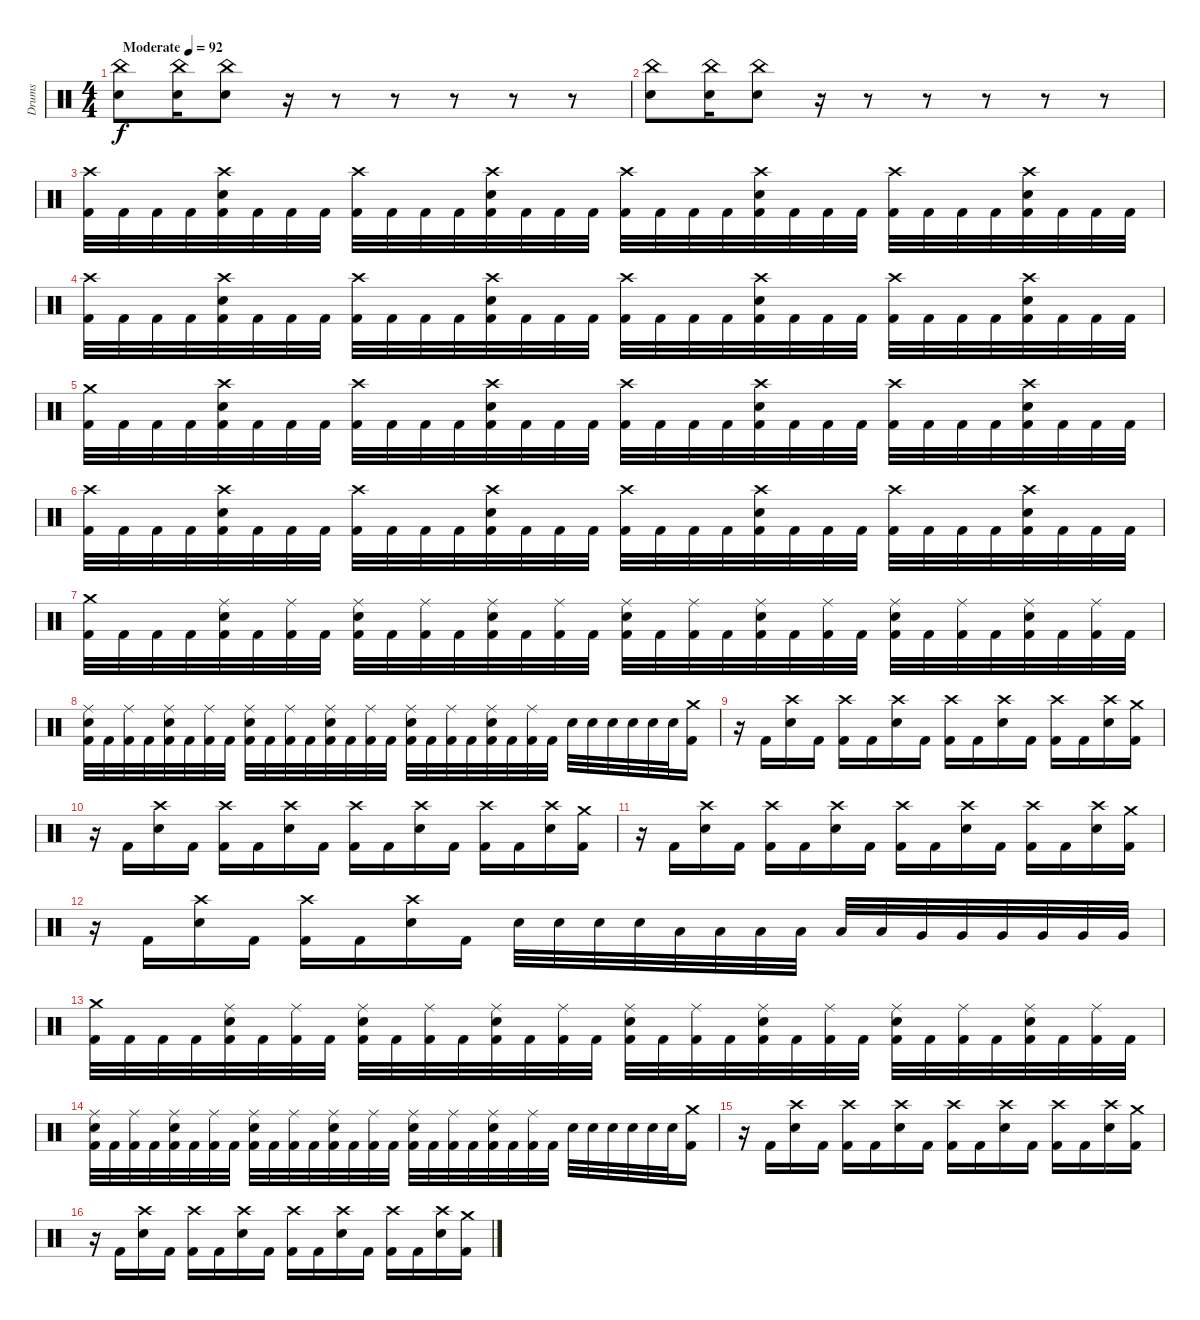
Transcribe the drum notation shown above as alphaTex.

\track ("Drums" "Drums") {instrument percussion}
\staff {score}
\articulation defaults
\ts (4 4)
\tempo (92 "Moderate")
\clef neutral
\ks c
("China (hit)" "Electric Snare (hit)").8{dy f} ("China (hit)" "Electric Snare (hit)").16 ("China (hit)" "Electric Snare (hit)").8 r.16 r.8 r.8 r.8 r.8 r.8 |
("China (hit)" "Electric Snare (hit)").8 ("China (hit)" "Electric Snare (hit)").16 ("China (hit)" "Electric Snare (hit)").8 r.16 r.8 r.8 r.8 r.8 r.8 |
("Crash high (hit)" "Kick (hit) 2").32 "Kick (hit) 2".32 "Kick (hit) 2".32 "Kick (hit) 2".32 ("Crash high (hit)" "Electric Snare (hit)" "Kick (hit) 2").32 "Kick (hit) 2".32 "Kick (hit) 2".32 "Kick (hit) 2".32 ("Crash high (hit)" "Kick (hit) 2").32 "Kick (hit) 2".32 "Kick (hit) 2".32 "Kick (hit) 2".32 ("Crash high (hit)" "Electric Snare (hit)" "Kick (hit) 2").32 "Kick (hit) 2".32 "Kick (hit) 2".32 "Kick (hit) 2".32 ("Crash high (hit)" "Kick (hit) 2").32 "Kick (hit) 2".32 "Kick (hit) 2".32 "Kick (hit) 2".32 ("Crash high (hit)" "Electric Snare (hit)" "Kick (hit) 2").32 "Kick (hit) 2".32 "Kick (hit) 2".32 "Kick (hit) 2".32 ("Crash high (hit)" "Kick (hit) 2").32 "Kick (hit) 2".32 "Kick (hit) 2".32 "Kick (hit) 2".32 ("Crash high (hit)" "Electric Snare (hit)" "Kick (hit) 2").32 "Kick (hit) 2".32 "Kick (hit) 2".32 "Kick (hit) 2".32 |
("Crash high (hit)" "Kick (hit) 2").32 "Kick (hit) 2".32 "Kick (hit) 2".32 "Kick (hit) 2".32 ("Crash high (hit)" "Electric Snare (hit)" "Kick (hit) 2").32 "Kick (hit) 2".32 "Kick (hit) 2".32 "Kick (hit) 2".32 ("Crash high (hit)" "Kick (hit) 2").32 "Kick (hit) 2".32 "Kick (hit) 2".32 "Kick (hit) 2".32 ("Crash high (hit)" "Electric Snare (hit)" "Kick (hit) 2").32 "Kick (hit) 2".32 "Kick (hit) 2".32 "Kick (hit) 2".32 ("Crash high (hit)" "Kick (hit) 2").32 "Kick (hit) 2".32 "Kick (hit) 2".32 "Kick (hit) 2".32 ("Crash high (hit)" "Electric Snare (hit)" "Kick (hit) 2").32 "Kick (hit) 2".32 "Kick (hit) 2".32 "Kick (hit) 2".32 ("Crash high (hit)" "Kick (hit) 2").32 "Kick (hit) 2".32 "Kick (hit) 2".32 "Kick (hit) 2".32 ("Crash high (hit)" "Electric Snare (hit)" "Kick (hit) 2").32 "Kick (hit) 2".32 "Kick (hit) 2".32 "Kick (hit) 2".32 |
("Crash medium (hit)" "Kick (hit) 2").32 "Kick (hit) 2".32 "Kick (hit) 2".32 "Kick (hit) 2".32 ("Crash high (hit)" "Electric Snare (hit)" "Kick (hit) 2").32 "Kick (hit) 2".32 "Kick (hit) 2".32 "Kick (hit) 2".32 ("Crash high (hit)" "Kick (hit) 2").32 "Kick (hit) 2".32 "Kick (hit) 2".32 "Kick (hit) 2".32 ("Crash high (hit)" "Electric Snare (hit)" "Kick (hit) 2").32 "Kick (hit) 2".32 "Kick (hit) 2".32 "Kick (hit) 2".32 ("Crash high (hit)" "Kick (hit) 2").32 "Kick (hit) 2".32 "Kick (hit) 2".32 "Kick (hit) 2".32 ("Crash high (hit)" "Electric Snare (hit)" "Kick (hit) 2").32 "Kick (hit) 2".32 "Kick (hit) 2".32 "Kick (hit) 2".32 ("Crash high (hit)" "Kick (hit) 2").32 "Kick (hit) 2".32 "Kick (hit) 2".32 "Kick (hit) 2".32 ("Crash high (hit)" "Electric Snare (hit)" "Kick (hit) 2").32 "Kick (hit) 2".32 "Kick (hit) 2".32 "Kick (hit) 2".32 |
("Crash high (hit)" "Kick (hit) 2").32 "Kick (hit) 2".32 "Kick (hit) 2".32 "Kick (hit) 2".32 ("Crash high (hit)" "Electric Snare (hit)" "Kick (hit) 2").32 "Kick (hit) 2".32 "Kick (hit) 2".32 "Kick (hit) 2".32 ("Crash high (hit)" "Kick (hit) 2").32 "Kick (hit) 2".32 "Kick (hit) 2".32 "Kick (hit) 2".32 ("Crash high (hit)" "Electric Snare (hit)" "Kick (hit) 2").32 "Kick (hit) 2".32 "Kick (hit) 2".32 "Kick (hit) 2".32 ("Crash high (hit)" "Kick (hit) 2").32 "Kick (hit) 2".32 "Kick (hit) 2".32 "Kick (hit) 2".32 ("Crash high (hit)" "Electric Snare (hit)" "Kick (hit) 2").32 "Kick (hit) 2".32 "Kick (hit) 2".32 "Kick (hit) 2".32 ("Crash high (hit)" "Kick (hit) 2").32 "Kick (hit) 2".32 "Kick (hit) 2".32 "Kick (hit) 2".32 ("Crash high (hit)" "Electric Snare (hit)" "Kick (hit) 2").32 "Kick (hit) 2".32 "Kick (hit) 2".32 "Kick (hit) 2".32 |
("Crash medium (hit)" "Kick (hit) 2").32 "Kick (hit) 2".32 "Kick (hit) 2".32 "Kick (hit) 2".32 ("Ride (middle)" "Electric Snare (hit)" "Kick (hit) 2").32 "Kick (hit) 2".32 ("Ride (middle)" "Kick (hit) 2").32 "Kick (hit) 2".32 ("Ride (middle)" "Electric Snare (hit)" "Kick (hit) 2").32 "Kick (hit) 2".32 ("Ride (middle)" "Kick (hit) 2").32 "Kick (hit) 2".32 ("Ride (middle)" "Electric Snare (hit)" "Kick (hit) 2").32 "Kick (hit) 2".32 ("Ride (middle)" "Kick (hit) 2").32 "Kick (hit) 2".32 ("Ride (middle)" "Electric Snare (hit)" "Kick (hit) 2").32 "Kick (hit) 2".32 ("Ride (middle)" "Kick (hit) 2").32 "Kick (hit) 2".32 ("Ride (middle)" "Electric Snare (hit)" "Kick (hit) 2").32 "Kick (hit) 2".32 ("Ride (middle)" "Kick (hit) 2").32 "Kick (hit) 2".32 ("Ride (middle)" "Electric Snare (hit)" "Kick (hit) 2").32 "Kick (hit) 2".32 ("Ride (middle)" "Kick (hit) 2").32 "Kick (hit) 2".32 ("Ride (middle)" "Electric Snare (hit)" "Kick (hit) 2").32 "Kick (hit) 2".32 ("Ride (middle)" "Kick (hit) 2").32 "Kick (hit) 2".32 |
("Ride (middle)" "Electric Snare (hit)" "Kick (hit) 2").32 "Kick (hit) 2".32 ("Ride (middle)" "Kick (hit) 2").32 "Kick (hit) 2".32 ("Ride (middle)" "Electric Snare (hit)" "Kick (hit) 2").32 "Kick (hit) 2".32 ("Ride (middle)" "Kick (hit) 2").32 "Kick (hit) 2".32 ("Ride (middle)" "Electric Snare (hit)" "Kick (hit) 2").32 "Kick (hit) 2".32 ("Ride (middle)" "Kick (hit) 2").32 "Kick (hit) 2".32 ("Ride (middle)" "Electric Snare (hit)" "Kick (hit) 2").32 "Kick (hit) 2".32 ("Ride (middle)" "Kick (hit) 2").32 "Kick (hit) 2".32 ("Ride (middle)" "Electric Snare (hit)" "Kick (hit) 2").32 "Kick (hit) 2".32 ("Ride (middle)" "Kick (hit) 2").32 "Kick (hit) 2".32 ("Ride (middle)" "Electric Snare (hit)" "Kick (hit) 2").32 "Kick (hit) 2".32 ("Ride (middle)" "Kick (hit) 2").32 "Kick (hit) 2".32 "Electric Snare (hit)".32 "Electric Snare (hit)".32 "Electric Snare (hit)".32 "Electric Snare (hit)".32 "Electric Snare (hit)".32 "Electric Snare (hit)".32 ("Crash medium (hit)" "Kick (hit) 2").16 |
r.16 "Kick (hit) 2".16 ("Crash high (hit)" "Electric Snare (hit)").16 "Kick (hit) 2".16 ("Crash high (hit)" "Kick (hit) 2").16 "Kick (hit) 2".16 ("Crash high (hit)" "Electric Snare (hit)").16 "Kick (hit) 2".16 ("Crash high (hit)" "Kick (hit) 2").16 "Kick (hit) 2".16 ("Crash high (hit)" "Electric Snare (hit)").16 "Kick (hit) 2".16 ("Crash high (hit)" "Kick (hit) 2").16 "Kick (hit) 2".16 ("Crash high (hit)" "Electric Snare (hit)").16 ("Crash medium (hit)" "Kick (hit) 2").16 |
r.16 "Kick (hit) 2".16 ("Crash high (hit)" "Electric Snare (hit)").16 "Kick (hit) 2".16 ("Crash high (hit)" "Kick (hit) 2").16 "Kick (hit) 2".16 ("Crash high (hit)" "Electric Snare (hit)").16 "Kick (hit) 2".16 ("Crash high (hit)" "Kick (hit) 2").16 "Kick (hit) 2".16 ("Crash high (hit)" "Electric Snare (hit)").16 "Kick (hit) 2".16 ("Crash high (hit)" "Kick (hit) 2").16 "Kick (hit) 2".16 ("Crash high (hit)" "Electric Snare (hit)").16 ("Crash medium (hit)" "Kick (hit) 2").16 |
r.16 "Kick (hit) 2".16 ("Crash high (hit)" "Electric Snare (hit)").16 "Kick (hit) 2".16 ("Crash high (hit)" "Kick (hit) 2").16 "Kick (hit) 2".16 ("Crash high (hit)" "Electric Snare (hit)").16 "Kick (hit) 2".16 ("Crash high (hit)" "Kick (hit) 2").16 "Kick (hit) 2".16 ("Crash high (hit)" "Electric Snare (hit)").16 "Kick (hit) 2".16 ("Crash high (hit)" "Kick (hit) 2").16 "Kick (hit) 2".16 ("Crash high (hit)" "Electric Snare (hit)").16 ("Crash medium (hit)" "Kick (hit) 2").16 |
r.16 "Kick (hit) 2".16 ("Crash high (hit)" "Electric Snare (hit)").16 "Kick (hit) 2".16 ("Crash high (hit)" "Kick (hit) 2").16 "Kick (hit) 2".16 ("Crash high (hit)" "Electric Snare (hit)").16 "Kick (hit) 2".16 "Electric Snare (hit)".32 "Electric Snare (hit)".32 "Electric Snare (hit)".32 "Electric Snare (hit)".32 "Low Tom (hit)".32 "Low Tom (hit)".32 "Low Tom (hit)".32 "Low Tom (hit)".32 "Low Tom (hit)".32 "Low Tom (hit)".32 "Very Low Tom (hit)".32 "Very Low Tom (hit)".32 "Very Low Tom (hit)".32 "Very Low Tom (hit)".32 "Very Low Tom (hit)".32 "Very Low Tom (hit)".32 |
("Crash medium (hit)" "Kick (hit) 2").32 "Kick (hit) 2".32 "Kick (hit) 2".32 "Kick (hit) 2".32 ("Ride (middle)" "Electric Snare (hit)" "Kick (hit) 2").32 "Kick (hit) 2".32 ("Ride (middle)" "Kick (hit) 2").32 "Kick (hit) 2".32 ("Ride (middle)" "Electric Snare (hit)" "Kick (hit) 2").32 "Kick (hit) 2".32 ("Ride (middle)" "Kick (hit) 2").32 "Kick (hit) 2".32 ("Ride (middle)" "Electric Snare (hit)" "Kick (hit) 2").32 "Kick (hit) 2".32 ("Ride (middle)" "Kick (hit) 2").32 "Kick (hit) 2".32 ("Ride (middle)" "Electric Snare (hit)" "Kick (hit) 2").32 "Kick (hit) 2".32 ("Ride (middle)" "Kick (hit) 2").32 "Kick (hit) 2".32 ("Ride (middle)" "Electric Snare (hit)" "Kick (hit) 2").32 "Kick (hit) 2".32 ("Ride (middle)" "Kick (hit) 2").32 "Kick (hit) 2".32 ("Ride (middle)" "Electric Snare (hit)" "Kick (hit) 2").32 "Kick (hit) 2".32 ("Ride (middle)" "Kick (hit) 2").32 "Kick (hit) 2".32 ("Ride (middle)" "Electric Snare (hit)" "Kick (hit) 2").32 "Kick (hit) 2".32 ("Ride (middle)" "Kick (hit) 2").32 "Kick (hit) 2".32 |
("Ride (middle)" "Electric Snare (hit)" "Kick (hit) 2").32 "Kick (hit) 2".32 ("Ride (middle)" "Kick (hit) 2").32 "Kick (hit) 2".32 ("Ride (middle)" "Electric Snare (hit)" "Kick (hit) 2").32 "Kick (hit) 2".32 ("Ride (middle)" "Kick (hit) 2").32 "Kick (hit) 2".32 ("Ride (middle)" "Electric Snare (hit)" "Kick (hit) 2").32 "Kick (hit) 2".32 ("Ride (middle)" "Kick (hit) 2").32 "Kick (hit) 2".32 ("Ride (middle)" "Electric Snare (hit)" "Kick (hit) 2").32 "Kick (hit) 2".32 ("Ride (middle)" "Kick (hit) 2").32 "Kick (hit) 2".32 ("Ride (middle)" "Electric Snare (hit)" "Kick (hit) 2").32 "Kick (hit) 2".32 ("Ride (middle)" "Kick (hit) 2").32 "Kick (hit) 2".32 ("Ride (middle)" "Electric Snare (hit)" "Kick (hit) 2").32 "Kick (hit) 2".32 ("Ride (middle)" "Kick (hit) 2").32 "Kick (hit) 2".32 "Electric Snare (hit)".32 "Electric Snare (hit)".32 "Electric Snare (hit)".32 "Electric Snare (hit)".32 "Electric Snare (hit)".32 "Electric Snare (hit)".32 ("Crash medium (hit)" "Kick (hit) 2").16 |
r.16 "Kick (hit) 2".16 ("Crash high (hit)" "Electric Snare (hit)").16 "Kick (hit) 2".16 ("Crash high (hit)" "Kick (hit) 2").16 "Kick (hit) 2".16 ("Crash high (hit)" "Electric Snare (hit)").16 "Kick (hit) 2".16 ("Crash high (hit)" "Kick (hit) 2").16 "Kick (hit) 2".16 ("Crash high (hit)" "Electric Snare (hit)").16 "Kick (hit) 2".16 ("Crash high (hit)" "Kick (hit) 2").16 "Kick (hit) 2".16 ("Crash high (hit)" "Electric Snare (hit)").16 ("Crash medium (hit)" "Kick (hit) 2").16 |
r.16 "Kick (hit) 2".16 ("Crash high (hit)" "Electric Snare (hit)").16 "Kick (hit) 2".16 ("Crash high (hit)" "Kick (hit) 2").16 "Kick (hit) 2".16 ("Crash high (hit)" "Electric Snare (hit)").16 "Kick (hit) 2".16 ("Crash high (hit)" "Kick (hit) 2").16 "Kick (hit) 2".16 ("Crash high (hit)" "Electric Snare (hit)").16 "Kick (hit) 2".16 ("Crash high (hit)" "Kick (hit) 2").16 "Kick (hit) 2".16 ("Crash high (hit)" "Electric Snare (hit)").16 ("Crash medium (hit)" "Kick (hit) 2").16
